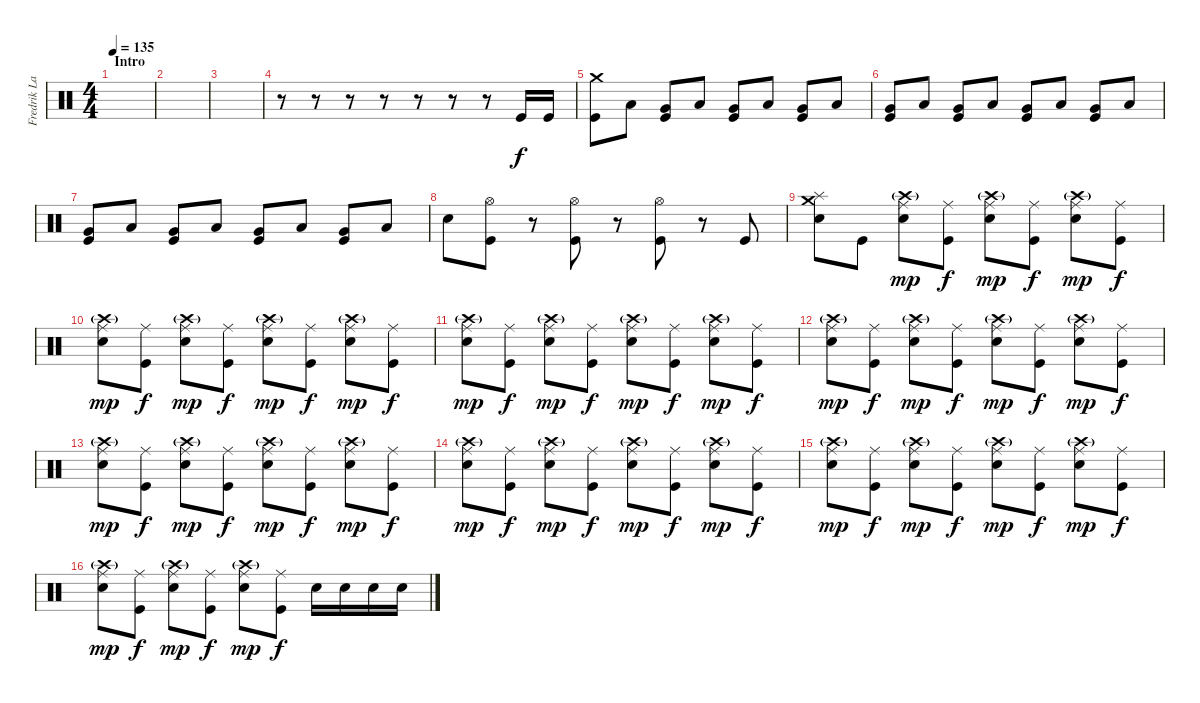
\track ("Fredrik Larzon" "Fredrik La") {instrument percussion}
\staff {score}
\articulation defaults
\ts (4 4)
\section ("" "Intro")
\tempo 135
\clef neutral
\ks c
|
|
|
r.8 r.8 r.8 r.8 r.8 r.8 r.8 "Kick (hit)".16 "Kick (hit)".16 |
("Crash medium (hit)" "Kick (hit)").8 "Low Tom (hit)".8 ("Very Low Tom (hit)" "Kick (hit)").8 "Low Tom (hit)".8 ("Very Low Tom (hit)" "Kick (hit)").8 "Low Tom (hit)".8 ("Very Low Tom (hit)" "Kick (hit)").8 "Low Tom (hit)".8 |
("Very Low Tom (hit)" "Kick (hit)").8 "Low Tom (hit)".8 ("Very Low Tom (hit)" "Kick (hit)").8 "Low Tom (hit)".8 ("Very Low Tom (hit)" "Kick (hit)").8 "Low Tom (hit)".8 ("Very Low Tom (hit)" "Kick (hit)").8 "Low Tom (hit)".8 |
("Very Low Tom (hit)" "Kick (hit)").8 "Low Tom (hit)".8 ("Very Low Tom (hit)" "Kick (hit)").8 "Low Tom (hit)".8 ("Very Low Tom (hit)" "Kick (hit)").8 "Low Tom (hit)".8 ("Very Low Tom (hit)" "Kick (hit)").8 "Low Tom (hit)".8 |
"Electric Snare (hit)".8 ("Hi-Hat (open)" "Kick (hit)").8 r.8 ("Hi-Hat (open)" "Kick (hit)").8 r.8 ("Hi-Hat (open)" "Kick (hit)").8 r.8 "Kick (hit)".8 |
("Splash (hit)" "Crash medium (hit)" "Electric Snare (hit)").8 "Kick (hit)".8 ("Ride (middle)" "Crash high (hit)"{g} "Electric Snare (hit)").8{dy mp} ("Ride (middle)" "Kick (hit)").8{dy f} ("Ride (middle)" "Crash high (hit)"{g} "Electric Snare (hit)").8{dy mp} ("Ride (middle)" "Kick (hit)").8{dy f} ("Ride (middle)" "Crash high (hit)"{g} "Electric Snare (hit)").8{dy mp} ("Ride (middle)" "Kick (hit)").8{dy f} |
("Ride (middle)" "Crash high (hit)"{g} "Electric Snare (hit)").8{dy mp} ("Ride (middle)" "Kick (hit)").8{dy f} ("Ride (middle)" "Crash high (hit)"{g} "Electric Snare (hit)").8{dy mp} ("Ride (middle)" "Kick (hit)").8{dy f} ("Ride (middle)" "Crash high (hit)"{g} "Electric Snare (hit)").8{dy mp} ("Ride (middle)" "Kick (hit)").8{dy f} ("Ride (middle)" "Crash high (hit)"{g} "Electric Snare (hit)").8{dy mp} ("Ride (middle)" "Kick (hit)").8{dy f} |
("Ride (middle)" "Crash high (hit)"{g} "Electric Snare (hit)").8{dy mp} ("Ride (middle)" "Kick (hit)").8{dy f} ("Ride (middle)" "Crash high (hit)"{g} "Electric Snare (hit)").8{dy mp} ("Ride (middle)" "Kick (hit)").8{dy f} ("Ride (middle)" "Crash high (hit)"{g} "Electric Snare (hit)").8{dy mp} ("Ride (middle)" "Kick (hit)").8{dy f} ("Ride (middle)" "Crash high (hit)"{g} "Electric Snare (hit)").8{dy mp} ("Ride (middle)" "Kick (hit)").8{dy f} |
("Ride (middle)" "Crash high (hit)"{g} "Electric Snare (hit)").8{dy mp} ("Ride (middle)" "Kick (hit)").8{dy f} ("Ride (middle)" "Crash high (hit)"{g} "Electric Snare (hit)").8{dy mp} ("Ride (middle)" "Kick (hit)").8{dy f} ("Ride (middle)" "Crash high (hit)"{g} "Electric Snare (hit)").8{dy mp} ("Ride (middle)" "Kick (hit)").8{dy f} ("Ride (middle)" "Crash high (hit)"{g} "Electric Snare (hit)").8{dy mp} ("Ride (middle)" "Kick (hit)").8{dy f} |
("Ride (middle)" "Crash high (hit)"{g} "Electric Snare (hit)").8{dy mp} ("Ride (middle)" "Kick (hit)").8{dy f} ("Ride (middle)" "Crash high (hit)"{g} "Electric Snare (hit)").8{dy mp} ("Ride (middle)" "Kick (hit)").8{dy f} ("Ride (middle)" "Crash high (hit)"{g} "Electric Snare (hit)").8{dy mp} ("Ride (middle)" "Kick (hit)").8{dy f} ("Ride (middle)" "Crash high (hit)"{g} "Electric Snare (hit)").8{dy mp} ("Ride (middle)" "Kick (hit)").8{dy f} |
("Ride (middle)" "Crash high (hit)"{g} "Electric Snare (hit)").8{dy mp} ("Ride (middle)" "Kick (hit)").8{dy f} ("Ride (middle)" "Crash high (hit)"{g} "Electric Snare (hit)").8{dy mp} ("Ride (middle)" "Kick (hit)").8{dy f} ("Ride (middle)" "Crash high (hit)"{g} "Electric Snare (hit)").8{dy mp} ("Ride (middle)" "Kick (hit)").8{dy f} ("Ride (middle)" "Crash high (hit)"{g} "Electric Snare (hit)").8{dy mp} ("Ride (middle)" "Kick (hit)").8{dy f} |
("Ride (middle)" "Crash high (hit)"{g} "Electric Snare (hit)").8{dy mp} ("Ride (middle)" "Kick (hit)").8{dy f} ("Ride (middle)" "Crash high (hit)"{g} "Electric Snare (hit)").8{dy mp} ("Ride (middle)" "Kick (hit)").8{dy f} ("Ride (middle)" "Crash high (hit)"{g} "Electric Snare (hit)").8{dy mp} ("Ride (middle)" "Kick (hit)").8{dy f} ("Ride (middle)" "Crash high (hit)"{g} "Electric Snare (hit)").8{dy mp} ("Ride (middle)" "Kick (hit)").8{dy f} |
("Ride (middle)" "Crash high (hit)"{g} "Electric Snare (hit)").8{dy mp} ("Ride (middle)" "Kick (hit)").8{dy f} ("Ride (middle)" "Crash high (hit)"{g} "Electric Snare (hit)").8{dy mp} ("Ride (middle)" "Kick (hit)").8{dy f} ("Ride (middle)" "Crash high (hit)"{g} "Electric Snare (hit)").8{dy mp} ("Ride (middle)" "Kick (hit)").8{dy f} "Electric Snare (hit)".16 "Electric Snare (hit)".16 "Electric Snare (hit)".16 "Electric Snare (hit)".16
